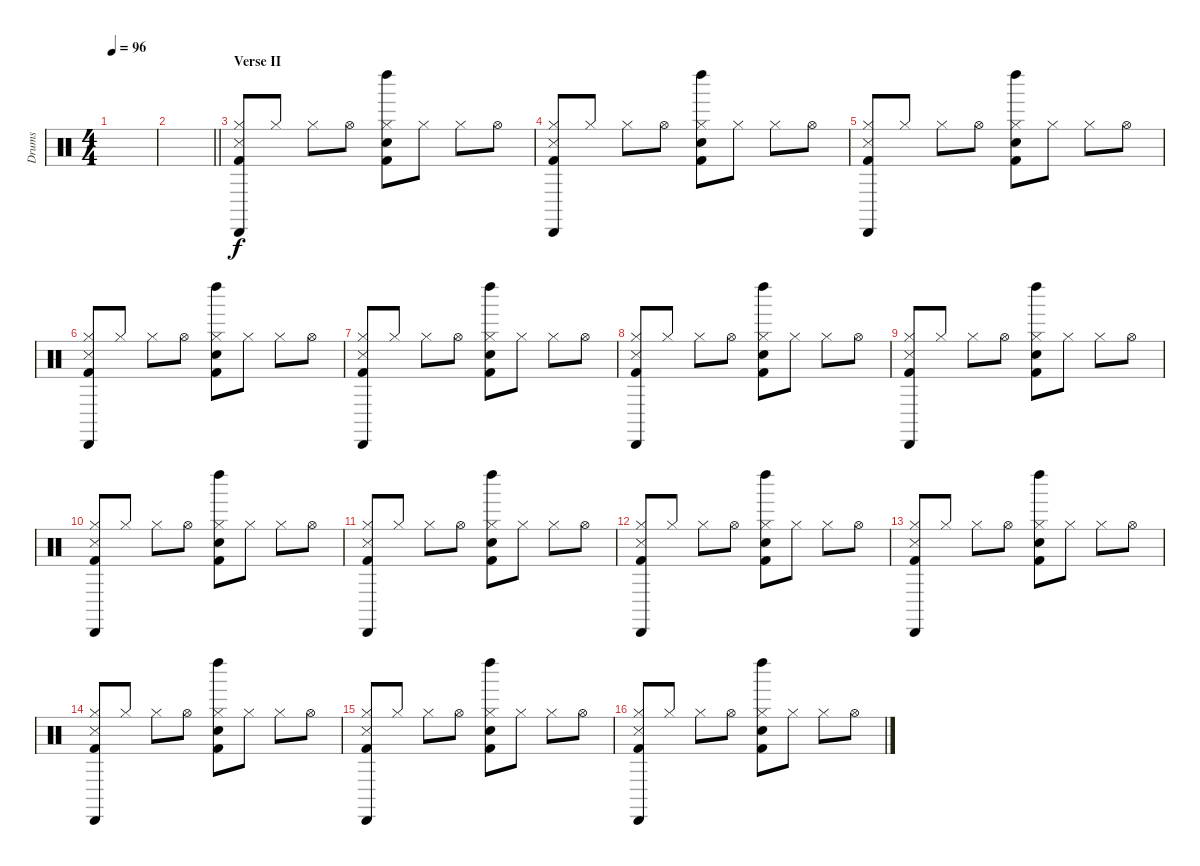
\track ("Drums   " "Drums   ") {instrument percussion}
\staff {score}
\articulation defaults
\ts (4 4)
\tempo 96
\clef neutral
\ks c
|
\barLineRight lightlight
|
\section ("" "Verse II")
("Snare (side stick) 3" "Hi-Hat (closed)" "Kick (hit) 2" "Cabasa (hit)").8 "Hi-Hat (closed)".8 "Hi-Hat (closed)".8 "Hi-Hat (open)".8 ("Hi-Hat (closed)" "Electric Snare (hit)" "Kick (hit) 2" "Left Maraca (hit)").8 "Hi-Hat (closed)".8 "Hi-Hat (closed)".8 "Hi-Hat (open)".8 |
("Snare (side stick) 3" "Hi-Hat (closed)" "Kick (hit) 2" "Cabasa (hit)").8 "Hi-Hat (closed)".8 "Hi-Hat (closed)".8 "Hi-Hat (open)".8 ("Hi-Hat (closed)" "Electric Snare (hit)" "Kick (hit) 2" "Left Maraca (hit)").8 "Hi-Hat (closed)".8 "Hi-Hat (closed)".8 "Hi-Hat (open)".8 |
("Snare (side stick) 3" "Hi-Hat (closed)" "Kick (hit) 2" "Cabasa (hit)").8 "Hi-Hat (closed)".8 "Hi-Hat (closed)".8 "Hi-Hat (open)".8 ("Hi-Hat (closed)" "Electric Snare (hit)" "Kick (hit) 2" "Left Maraca (hit)").8 "Hi-Hat (closed)".8 "Hi-Hat (closed)".8 "Hi-Hat (open)".8 |
("Snare (side stick) 3" "Hi-Hat (closed)" "Kick (hit) 2" "Cabasa (hit)").8 "Hi-Hat (closed)".8 "Hi-Hat (closed)".8 "Hi-Hat (open)".8 ("Hi-Hat (closed)" "Electric Snare (hit)" "Kick (hit) 2" "Left Maraca (hit)").8 "Hi-Hat (closed)".8 "Hi-Hat (closed)".8 "Hi-Hat (open)".8 |
("Snare (side stick) 3" "Hi-Hat (closed)" "Kick (hit) 2" "Cabasa (hit)").8 "Hi-Hat (closed)".8 "Hi-Hat (closed)".8 "Hi-Hat (open)".8 ("Hi-Hat (closed)" "Electric Snare (hit)" "Kick (hit) 2" "Left Maraca (hit)").8 "Hi-Hat (closed)".8 "Hi-Hat (closed)".8 "Hi-Hat (open)".8 |
("Snare (side stick) 3" "Hi-Hat (closed)" "Kick (hit) 2" "Cabasa (hit)").8 "Hi-Hat (closed)".8 "Hi-Hat (closed)".8 "Hi-Hat (open)".8 ("Hi-Hat (closed)" "Electric Snare (hit)" "Kick (hit) 2" "Left Maraca (hit)").8 "Hi-Hat (closed)".8 "Hi-Hat (closed)".8 "Hi-Hat (open)".8 |
("Snare (side stick) 3" "Hi-Hat (closed)" "Kick (hit) 2" "Cabasa (hit)").8 "Hi-Hat (closed)".8 "Hi-Hat (closed)".8 "Hi-Hat (open)".8 ("Hi-Hat (closed)" "Electric Snare (hit)" "Kick (hit) 2" "Left Maraca (hit)").8 "Hi-Hat (closed)".8 "Hi-Hat (closed)".8 "Hi-Hat (open)".8 |
("Snare (side stick) 3" "Hi-Hat (closed)" "Kick (hit) 2" "Cabasa (hit)").8 "Hi-Hat (closed)".8 "Hi-Hat (closed)".8 "Hi-Hat (open)".8 ("Hi-Hat (closed)" "Electric Snare (hit)" "Kick (hit) 2" "Left Maraca (hit)").8 "Hi-Hat (closed)".8 "Hi-Hat (closed)".8 "Hi-Hat (open)".8 |
("Snare (side stick) 3" "Hi-Hat (closed)" "Kick (hit) 2" "Cabasa (hit)").8 "Hi-Hat (closed)".8 "Hi-Hat (closed)".8 "Hi-Hat (open)".8 ("Hi-Hat (closed)" "Electric Snare (hit)" "Kick (hit) 2" "Left Maraca (hit)").8 "Hi-Hat (closed)".8 "Hi-Hat (closed)".8 "Hi-Hat (open)".8 |
("Snare (side stick) 3" "Hi-Hat (closed)" "Kick (hit) 2" "Cabasa (hit)").8 "Hi-Hat (closed)".8 "Hi-Hat (closed)".8 "Hi-Hat (open)".8 ("Hi-Hat (closed)" "Electric Snare (hit)" "Kick (hit) 2" "Left Maraca (hit)").8 "Hi-Hat (closed)".8 "Hi-Hat (closed)".8 "Hi-Hat (open)".8 |
("Snare (side stick) 3" "Hi-Hat (closed)" "Kick (hit) 2" "Cabasa (hit)").8 "Hi-Hat (closed)".8 "Hi-Hat (closed)".8 "Hi-Hat (open)".8 ("Hi-Hat (closed)" "Electric Snare (hit)" "Kick (hit) 2" "Left Maraca (hit)").8 "Hi-Hat (closed)".8 "Hi-Hat (closed)".8 "Hi-Hat (open)".8 |
("Snare (side stick) 3" "Hi-Hat (closed)" "Kick (hit) 2" "Cabasa (hit)").8 "Hi-Hat (closed)".8 "Hi-Hat (closed)".8 "Hi-Hat (open)".8 ("Hi-Hat (closed)" "Electric Snare (hit)" "Kick (hit) 2" "Left Maraca (hit)").8 "Hi-Hat (closed)".8 "Hi-Hat (closed)".8 "Hi-Hat (open)".8 |
("Snare (side stick) 3" "Hi-Hat (closed)" "Kick (hit) 2" "Cabasa (hit)").8 "Hi-Hat (closed)".8 "Hi-Hat (closed)".8 "Hi-Hat (open)".8 ("Hi-Hat (closed)" "Electric Snare (hit)" "Kick (hit) 2" "Left Maraca (hit)").8 "Hi-Hat (closed)".8 "Hi-Hat (closed)".8 "Hi-Hat (open)".8 |
("Snare (side stick) 3" "Hi-Hat (closed)" "Kick (hit) 2" "Cabasa (hit)").8 "Hi-Hat (closed)".8 "Hi-Hat (closed)".8 "Hi-Hat (open)".8 ("Hi-Hat (closed)" "Electric Snare (hit)" "Kick (hit) 2" "Left Maraca (hit)").8 "Hi-Hat (closed)".8 "Hi-Hat (closed)".8 "Hi-Hat (open)".8
